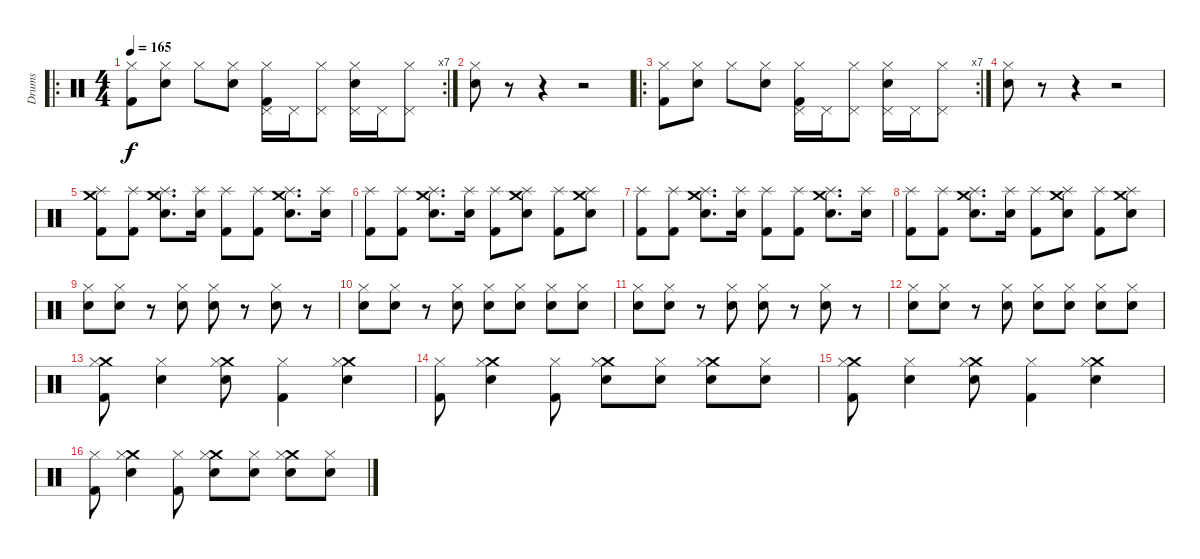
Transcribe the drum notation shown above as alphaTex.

\track ("Drums" "Drums") {instrument percussion}
\staff {score}
\articulation defaults
\ro
\rc 7
\ts (4 4)
\tempo 165
\clef neutral
\ks c
("Hi-Hat (closed)" "Kick (hit) 2").8{dy f} ("Hi-Hat (closed)" "Electric Snare (hit)").8 "Hi-Hat (closed)".8 ("Hi-Hat (closed)" "Electric Snare (hit)").8 ("Pedal Hi-Hat (hit)" "Hi-Hat (closed)" "Kick (hit) 2").16 "Pedal Hi-Hat (hit)".16 ("Pedal Hi-Hat (hit)" "Hi-Hat (closed)").8 ("Pedal Hi-Hat (hit)" "Hi-Hat (closed)" "Electric Snare (hit)").16 "Pedal Hi-Hat (hit)".16 ("Pedal Hi-Hat (hit)" "Hi-Hat (closed)").8 |
("Hi-Hat (closed)" "Electric Snare (hit)").8 r.8 r.4 r.2 |
\ro
\rc 7
("Hi-Hat (closed)" "Kick (hit) 2").8 ("Hi-Hat (closed)" "Electric Snare (hit)").8 "Hi-Hat (closed)".8 ("Hi-Hat (closed)" "Electric Snare (hit)").8 ("Pedal Hi-Hat (hit)" "Hi-Hat (closed)" "Kick (hit) 2").16 "Pedal Hi-Hat (hit)".16 ("Pedal Hi-Hat (hit)" "Hi-Hat (closed)").8 ("Pedal Hi-Hat (hit)" "Hi-Hat (closed)" "Electric Snare (hit)").16 "Pedal Hi-Hat (hit)".16 ("Pedal Hi-Hat (hit)" "Hi-Hat (closed)").8 |
("Hi-Hat (closed)" "Electric Snare (hit)").8 r.8 r.4 r.2 |
("Crash medium (hit)" "Splash (hit)" "Kick (hit) 2").8 ("Splash (hit)" "Kick (hit) 2").8 ("Crash medium (hit)" "Splash (hit)" "Snare (hit) 2").8{d} ("Splash (hit)" "Electric Snare (hit)").16 ("Splash (hit)" "Kick (hit) 2").8 ("Splash (hit)" "Kick (hit) 2").8 ("Crash medium (hit)" "Splash (hit)" "Snare (hit) 2").8{d} ("Splash (hit)" "Electric Snare (hit)").16 |
("Splash (hit)" "Kick (hit) 2").8 ("Splash (hit)" "Kick (hit) 2").8 ("Crash medium (hit)" "Splash (hit)" "Snare (hit) 2").8{d} ("Splash (hit)" "Electric Snare (hit)").16 ("Splash (hit)" "Kick (hit) 2").8 ("Crash medium (hit)" "Splash (hit)" "Snare (hit) 2").8 ("Splash (hit)" "Kick (hit) 2").8 ("Crash medium (hit)" "Splash (hit)" "Snare (hit) 2").8 |
("Splash (hit)" "Kick (hit) 2").8 ("Splash (hit)" "Kick (hit) 2").8 ("Crash medium (hit)" "Splash (hit)" "Snare (hit) 2").8{d} ("Splash (hit)" "Electric Snare (hit)").16 ("Splash (hit)" "Kick (hit) 2").8 ("Splash (hit)" "Kick (hit) 2").8 ("Crash medium (hit)" "Splash (hit)" "Snare (hit) 2").8{d} ("Splash (hit)" "Electric Snare (hit)").16 |
("Splash (hit)" "Kick (hit) 2").8 ("Splash (hit)" "Kick (hit) 2").8 ("Crash medium (hit)" "Splash (hit)" "Snare (hit) 2").8{d} ("Splash (hit)" "Electric Snare (hit)").16 ("Splash (hit)" "Kick (hit) 2").8 ("Crash medium (hit)" "Splash (hit)" "Snare (hit) 2").8 ("Splash (hit)" "Kick (hit) 2").8 ("Crash medium (hit)" "Splash (hit)" "Snare (hit) 2").8 |
("Hi-Hat (closed)" "Electric Snare (hit)").8 ("Hi-Hat (closed)" "Electric Snare (hit)").8 r.8 ("Hi-Hat (closed)" "Electric Snare (hit)").8 ("Hi-Hat (closed)" "Electric Snare (hit)").8 r.8 ("Hi-Hat (closed)" "Electric Snare (hit)").8 r.8 |
("Hi-Hat (closed)" "Electric Snare (hit)").8 ("Hi-Hat (closed)" "Electric Snare (hit)").8 r.8 ("Hi-Hat (closed)" "Electric Snare (hit)").8 ("Hi-Hat (closed)" "Electric Snare (hit)").8 ("Hi-Hat (closed)" "Electric Snare (hit)").8 ("Hi-Hat (closed)" "Electric Snare (hit)").8 ("Hi-Hat (closed)" "Electric Snare (hit)").8 |
("Hi-Hat (closed)" "Electric Snare (hit)").8 ("Hi-Hat (closed)" "Electric Snare (hit)").8 r.8 ("Hi-Hat (closed)" "Electric Snare (hit)").8 ("Hi-Hat (closed)" "Electric Snare (hit)").8 r.8 ("Hi-Hat (closed)" "Electric Snare (hit)").8 r.8 |
("Hi-Hat (closed)" "Electric Snare (hit)").8 ("Hi-Hat (closed)" "Electric Snare (hit)").8 r.8 ("Hi-Hat (closed)" "Electric Snare (hit)").8 ("Hi-Hat (closed)" "Electric Snare (hit)").8 ("Hi-Hat (closed)" "Electric Snare (hit)").8 ("Hi-Hat (closed)" "Electric Snare (hit)").8 ("Hi-Hat (closed)" "Electric Snare (hit)").8 |
("Crash medium (hit)" "Hi-Hat (closed)" "Kick (hit) 2").8 ("Hi-Hat (closed)" "Electric Snare (hit)").4 ("Crash medium (hit)" "Hi-Hat (closed)" "Electric Snare (hit)").8 ("Hi-Hat (closed)" "Kick (hit) 2").4 ("Crash medium (hit)" "Hi-Hat (closed)" "Electric Snare (hit)").4 |
("Hi-Hat (closed)" "Kick (hit) 2").8 ("Crash medium (hit)" "Hi-Hat (closed)" "Electric Snare (hit)").4 ("Hi-Hat (closed)" "Kick (hit) 2").8 ("Crash medium (hit)" "Hi-Hat (closed)" "Electric Snare (hit)").8 ("Hi-Hat (closed)" "Electric Snare (hit)").8 ("Crash medium (hit)" "Hi-Hat (closed)" "Electric Snare (hit)").8 ("Hi-Hat (closed)" "Electric Snare (hit)").8 |
("Crash medium (hit)" "Hi-Hat (closed)" "Kick (hit) 2").8 ("Hi-Hat (closed)" "Electric Snare (hit)").4 ("Crash medium (hit)" "Hi-Hat (closed)" "Electric Snare (hit)").8 ("Hi-Hat (closed)" "Kick (hit) 2").4 ("Crash medium (hit)" "Hi-Hat (closed)" "Electric Snare (hit)").4 |
("Hi-Hat (closed)" "Kick (hit) 2").8 ("Crash medium (hit)" "Hi-Hat (closed)" "Electric Snare (hit)").4 ("Hi-Hat (closed)" "Kick (hit) 2").8 ("Crash medium (hit)" "Hi-Hat (closed)" "Electric Snare (hit)").8 ("Hi-Hat (closed)" "Electric Snare (hit)").8 ("Crash medium (hit)" "Hi-Hat (closed)" "Electric Snare (hit)").8 ("Hi-Hat (closed)" "Electric Snare (hit)").8
